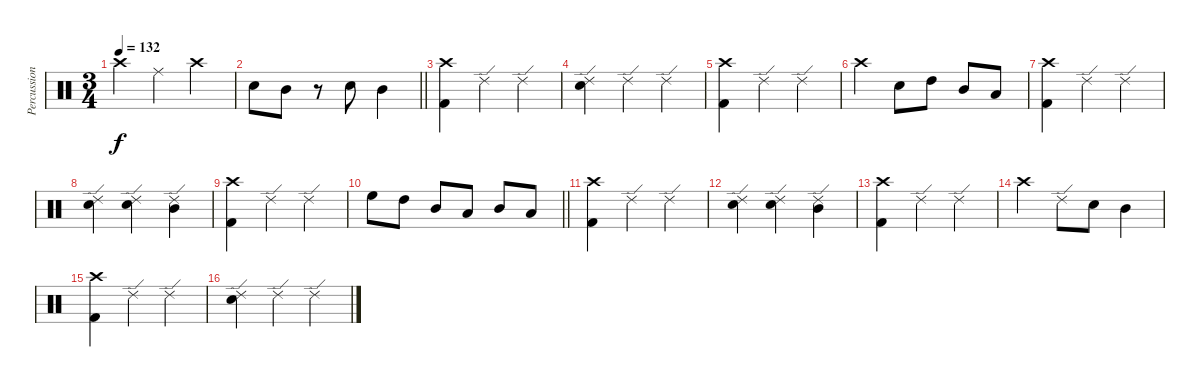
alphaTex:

\track ("Percussion" "Percussion") {instrument percussion}
\staff {score}
\articulation defaults
\ts (3 4)
\tempo 132
\clef neutral
\ks c "Crash high (hit)".4{dy f} "Ride (middle)".4 "Crash high (hit)".4
|
\barLineRight lightlight "Snare (hit) 2".8 "Mid Tom (hit)".8
r.8 "Snare (hit) 2".8 "Mid Tom (hit)".4 |
("Crash high (hit)" "Kick (hit) 2").4 "Ride (edge) 2".4 "Ride (edge) 2".4 |
("Snare (hit) 2" "Ride (edge) 2").4 "Ride (edge) 2".4 "Ride (edge) 2".4 |
("Crash high (hit)" "Kick (hit) 2").4 "Ride (edge) 2".4 "Ride (edge) 2".4 |
"Crash high (hit)".4 "Snare (hit) 2".8 "High Tom (hit)".8 "Mid Tom (hit)".8 "Low Tom (hit)".8 |
("Crash high (hit)" "Kick (hit) 2").4 "Ride (edge) 2".4 "Ride (edge) 2".4 |
("Snare (hit) 2" "Ride (edge) 2").4 ("Snare (hit) 2" "Ride (edge) 2").4 ("Mid Tom (hit)" "Ride (edge) 2").4 |
("Crash high (hit)" "Kick (hit) 2").4 "Ride (edge) 2".4 "Ride (edge) 2".4 |
\barLineRight lightlight "High Floor Tom (hit)".8 "High Tom (hit)".8 "Mid Tom (hit)".8 "Low Tom (hit)".8 "Mid Tom (hit)".8 "Low Tom (hit)".8
|
("Crash high (hit)" "Kick (hit) 2").4 "Ride (edge) 2".4 "Ride (edge) 2".4 |
("Ride (edge) 2" "Snare (hit) 2").4 ("Ride (edge) 2" "Snare (hit) 2").4 ("Ride (edge) 2" "Mid Tom (hit)").4 |
("Crash high (hit)" "Kick (hit) 2").4 "Ride (edge) 2".4 "Ride (edge) 2".4 |
"Crash high (hit)".4 "Ride (edge) 2".8 "Snare (hit) 2".8 "Mid Tom (hit)".4 |
("Crash high (hit)" "Kick (hit) 2").4 "Ride (edge) 2".4 "Ride (edge) 2".4 |
("Ride (edge) 2" "Snare (hit) 2").4 "Ride (edge) 2".4 "Ride (edge) 2".4
